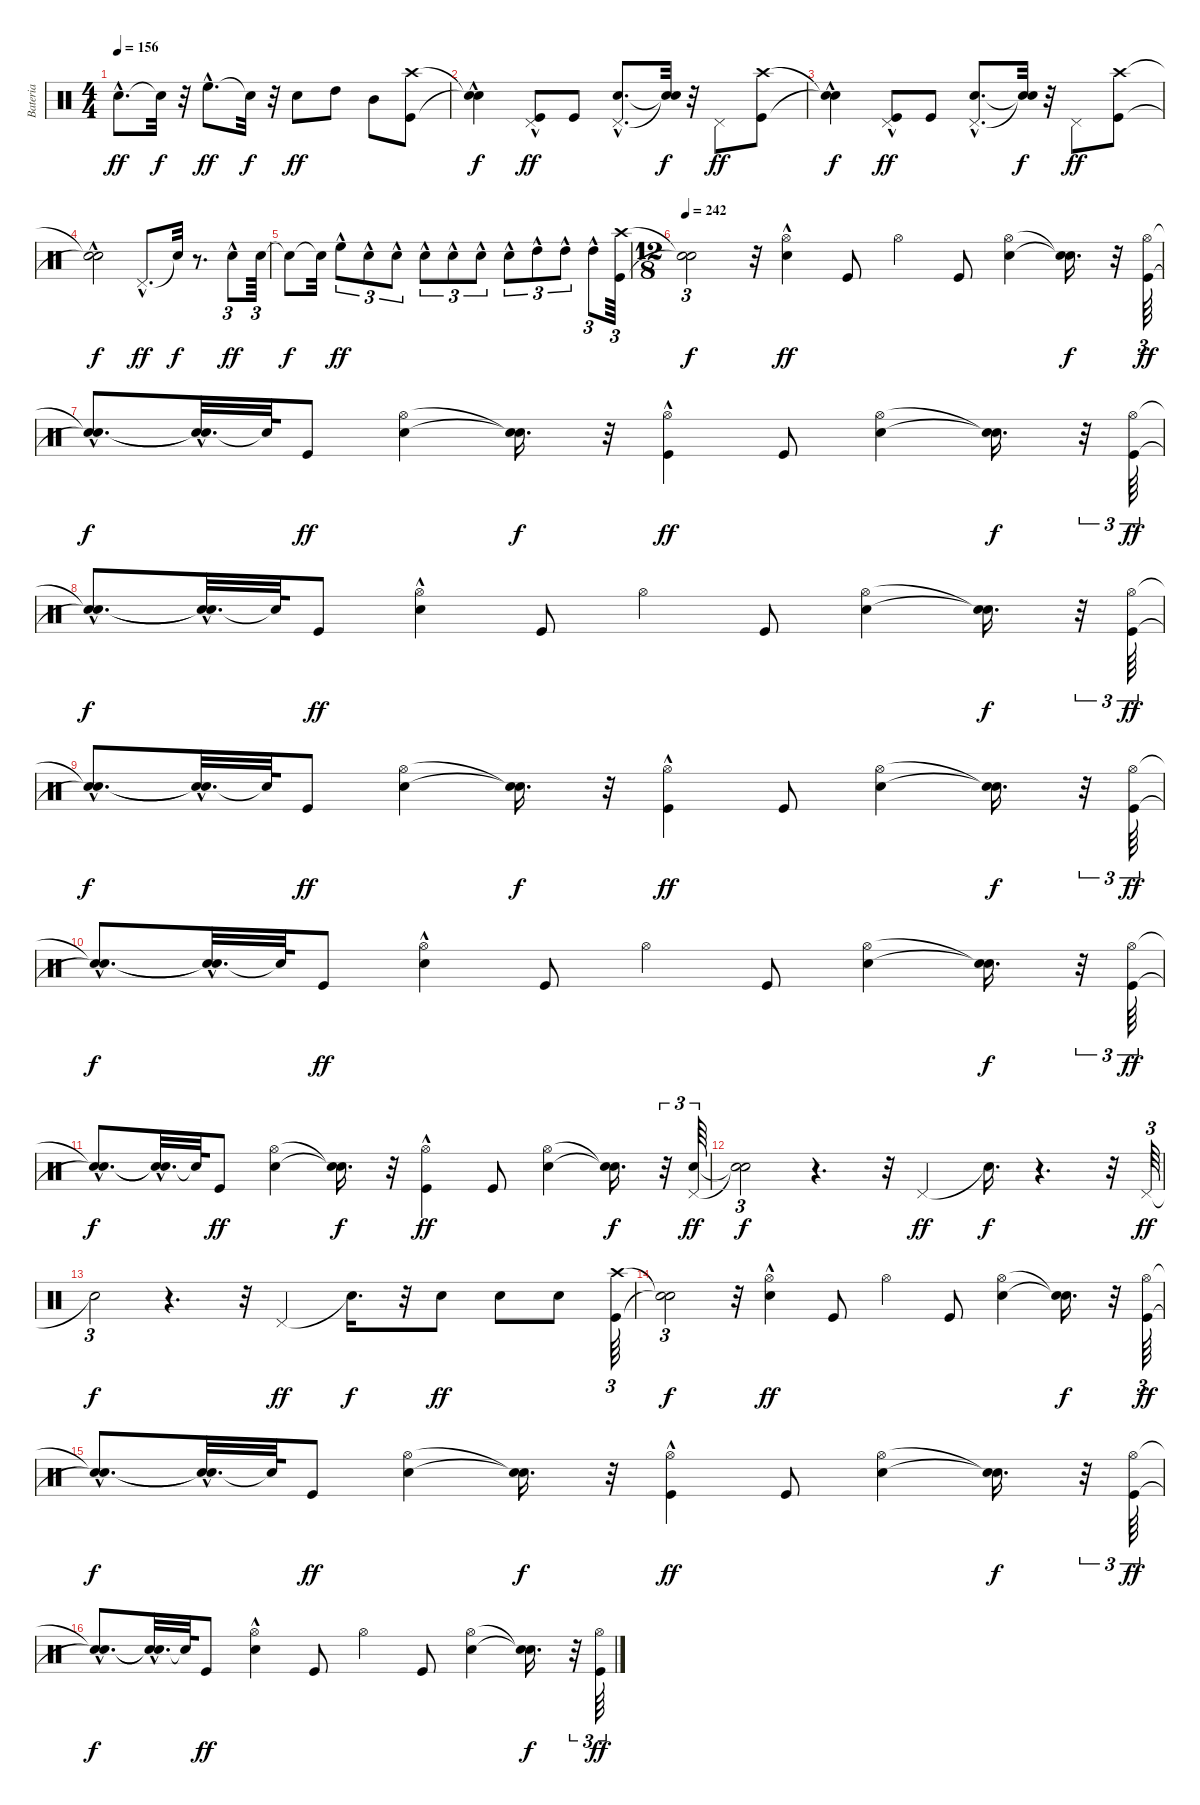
\track ("Bateria" "Bateria") {instrument percussion}
\staff {score}
\articulation defaults
\ts (4 4)
\tempo 156
\clef neutral
\ks c "Snare (hit) 2"{hac}.8{d dy ff} "Snare (hit)"{t}.32{dy f}
r.32 "High Floor Tom (hit)"{hac}.8{d dy ff} "Snare (hit)"{t}.32{dy f} r.32 "Snare (hit) 2".8{dy ff} "High Tom (hit)".8 "Mid Tom (hit)".8 ("Kick (hit)" "Crash high (hit)").8 |
("Snare (hit)"{hac t} "Snare (hit)"{t}).4{dy f} ("Kick (hit)" "Pedal Hi-Hat (hit)"{hac}).8{dy ff} "Kick (hit)".8 ("Snare (hit) 2"{hac} "Pedal Hi-Hat (hit)"{hac}).8{d} ("Snare (hit)"{t} "Snare (hit)"{t}).32{dy f} r.32 "Pedal Hi-Hat (hit)".8{dy ff} ("Kick (hit)" "Crash high (hit)").8 |
("Snare (hit)"{hac t} "Snare (hit)"{t}).4{dy f} ("Kick (hit)" "Pedal Hi-Hat (hit)"{hac}).8{dy ff} "Kick (hit)".8 ("Snare (hit) 2"{hac} "Pedal Hi-Hat (hit)"{hac}).8{d} ("Snare (hit)"{t} "Snare (hit)"{t}).32{dy f} r.32 "Pedal Hi-Hat (hit)".8{dy ff} ("Kick (hit)" "Crash high (hit)").8 |
("Snare (hit)"{hac t} "Snare (hit)"{t}).2{dy f} "Pedal Hi-Hat (hit)"{hac}.8{d dy ff} "Snare (hit)"{t}.32{dy f} r.8{d} "Snare (hit) 2"{hac}.8{tu (3 2) dy ff} "Snare (hit) 2".64{tu (3 2)} |
"Snare (hit)"{t}.8{dy f} "Snare (hit)"{t}.32 "High Floor Tom (hit)"{hac}.8{tu (3 2) dy ff} "Snare (hit) 2"{hac}.8{tu (3 2)} "Snare (hit) 2"{hac}.8{tu (3 2)} "Snare (hit) 2"{hac}.8{tu (3 2)} "Snare (hit) 2"{hac}.8{tu (3 2)} "Snare (hit) 2"{hac}.8{tu (3 2)} "Snare (hit) 2"{hac}.8{tu (3 2)} "High Tom (hit)"{hac}.8{tu (3 2)} "High Tom (hit)"{hac}.8{tu (3 2)} "High Tom (hit)"{hac}.8{tu (3 2)} ("Kick (hit)" "Crash high (hit)").64{tu (3 2)} |
\ts (12 8)
\tempo 234
\tempo 242
("Snare (hit)"{t} "Snare (hit)"{t}).2{tu (3 2) dy f} r.32 ("Snare (hit) 2"{hac} "Hi-Hat (open)").4{dy ff} "Kick (hit)".8 "Hi-Hat (open)".4 "Kick (hit)".8 ("Snare (hit) 2" "Hi-Hat (open)").4 ("Snare (hit)"{t} "Snare (hit)"{t}).16{d dy f} r.32 ("Kick (hit)" "Hi-Hat (open)").64{tu (3 2) dy ff} |
("Snare (hit)"{hac t} "Snare (hit)"{hac t}).8{d dy f} ("Snare (hit)"{t} "Snare (hit)"{hac t}).32{d} "Snare (hit)"{t}.64 "Kick (hit)".8{dy ff} ("Snare (hit) 2" "Hi-Hat (open)").4 ("Snare (hit)"{t} "Snare (hit)"{t}).16{d dy f} r.32 ("Kick (hit)"{hac} "Hi-Hat (open)").4{dy ff} "Kick (hit)".8 ("Snare (hit) 2" "Hi-Hat (open)").4 ("Snare (hit)"{t} "Snare (hit)"{t}).16{d dy f} r.32{tu (3 2)} ("Kick (hit)" "Hi-Hat (open)").64{tu (3 2) dy ff} |
("Snare (hit)"{hac t} "Snare (hit)"{hac t}).8{d dy f} ("Snare (hit)"{t} "Snare (hit)"{hac t}).32{d} "Snare (hit)"{t}.64 "Kick (hit)".8{dy ff} ("Snare (hit) 2"{hac} "Hi-Hat (open)").4 "Kick (hit)".8 "Hi-Hat (open)".4 "Kick (hit)".8 ("Snare (hit) 2" "Hi-Hat (open)").4 ("Snare (hit)"{t} "Snare (hit)"{t}).16{d dy f} r.32{tu (3 2)} ("Kick (hit)" "Hi-Hat (open)").64{tu (3 2) dy ff} |
("Snare (hit)"{hac t} "Snare (hit)"{hac t}).8{d dy f} ("Snare (hit)"{t} "Snare (hit)"{hac t}).32{d} "Snare (hit)"{t}.64 "Kick (hit)".8{dy ff} ("Snare (hit) 2" "Hi-Hat (open)").4 ("Snare (hit)"{t} "Snare (hit)"{t}).16{d dy f} r.32 ("Kick (hit)"{hac} "Hi-Hat (open)").4{dy ff} "Kick (hit)".8 ("Snare (hit) 2" "Hi-Hat (open)").4 ("Snare (hit)"{t} "Snare (hit)"{t}).16{d dy f} r.32{tu (3 2)} ("Kick (hit)" "Hi-Hat (open)").64{tu (3 2) dy ff} |
("Snare (hit)"{hac t} "Snare (hit)"{hac t}).8{d dy f} ("Snare (hit)"{t} "Snare (hit)"{hac t}).32{d} "Snare (hit)"{t}.64 "Kick (hit)".8{dy ff} ("Snare (hit) 2"{hac} "Hi-Hat (open)").4 "Kick (hit)".8 "Hi-Hat (open)".4 "Kick (hit)".8 ("Snare (hit) 2" "Hi-Hat (open)").4 ("Snare (hit)"{t} "Snare (hit)"{t}).16{d dy f} r.32{tu (3 2)} ("Kick (hit)" "Hi-Hat (open)").64{tu (3 2) dy ff} |
("Snare (hit)"{hac t} "Snare (hit)"{hac t}).8{d dy f} ("Snare (hit)"{t} "Snare (hit)"{hac t}).32{d} "Snare (hit)"{t}.64 "Kick (hit)".8{dy ff} ("Snare (hit) 2" "Hi-Hat (open)").4 ("Snare (hit)"{t} "Snare (hit)"{t}).16{d dy f} r.32 ("Kick (hit)"{hac} "Hi-Hat (open)").4{dy ff} "Kick (hit)".8 ("Snare (hit) 2" "Hi-Hat (open)").4 ("Snare (hit)"{t} "Snare (hit)"{t}).16{d dy f} r.32{tu (3 2)} ("Snare (hit) 2" "Pedal Hi-Hat (hit)").64{tu (3 2) dy ff} |
("Snare (hit)"{t} "Snare (hit)"{t}).2{tu (3 2) dy f} r.4{d} r.32 "Pedal Hi-Hat (hit)".4{dy ff} "Snare (hit)"{t}.16{d dy f} r.4{d} r.32 "Pedal Hi-Hat (hit)".64{tu (3 2) dy ff} |
"Snare (hit)"{t}.2{tu (3 2) dy f} r.4{d} r.32 "Pedal Hi-Hat (hit)".4{dy ff} "Snare (hit)"{t}.16{d dy f} r.32 "Snare (hit) 2".8{dy ff} "Snare (hit) 2".8 "Snare (hit) 2".8 ("Kick (hit)" "Crash high (hit)").64{tu (3 2)} |
("Snare (hit)"{t} "Snare (hit)"{t}).2{tu (3 2) dy f} r.32 ("Snare (hit) 2"{hac} "Hi-Hat (open)").4{dy ff} "Kick (hit)".8 "Hi-Hat (open)".4 "Kick (hit)".8 ("Snare (hit) 2" "Hi-Hat (open)").4 ("Snare (hit)"{t} "Snare (hit)"{t}).16{d dy f} r.32 ("Kick (hit)" "Hi-Hat (open)").64{tu (3 2) dy ff} |
("Snare (hit)"{hac t} "Snare (hit)"{hac t}).8{d dy f} ("Snare (hit)"{t} "Snare (hit)"{hac t}).32{d} "Snare (hit)"{t}.64 "Kick (hit)".8{dy ff} ("Snare (hit) 2" "Hi-Hat (open)").4 ("Snare (hit)"{t} "Snare (hit)"{t}).16{d dy f} r.32 ("Kick (hit)"{hac} "Hi-Hat (open)").4{dy ff} "Kick (hit)".8 ("Snare (hit) 2" "Hi-Hat (open)").4 ("Snare (hit)"{t} "Snare (hit)"{t}).16{d dy f} r.32{tu (3 2)} ("Kick (hit)" "Hi-Hat (open)").64{tu (3 2) dy ff} |
("Snare (hit)"{hac t} "Snare (hit)"{hac t}).8{d dy f} ("Snare (hit)"{t} "Snare (hit)"{hac t}).32{d} "Snare (hit)"{t}.64 "Kick (hit)".8{dy ff} ("Snare (hit) 2"{hac} "Hi-Hat (open)").4 "Kick (hit)".8 "Hi-Hat (open)".4 "Kick (hit)".8 ("Snare (hit) 2" "Hi-Hat (open)").4 ("Snare (hit)"{t} "Snare (hit)"{t}).16{d dy f} r.32{tu (3 2)} ("Kick (hit)" "Hi-Hat (open)").64{tu (3 2) dy ff}
